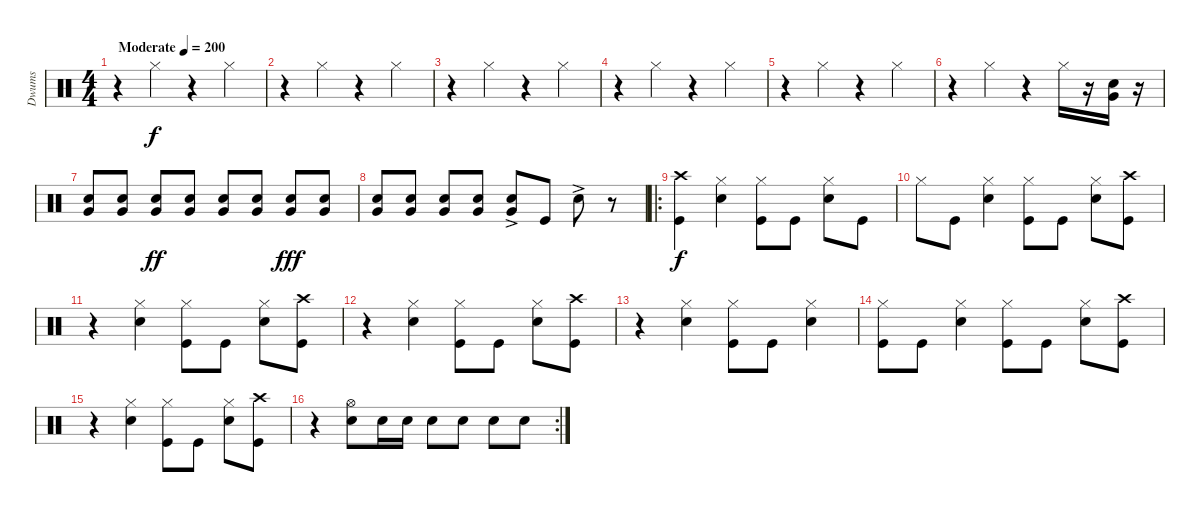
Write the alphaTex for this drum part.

\track ("Dwums" "Dwums") {instrument percussion}
\staff {score}
\articulation defaults
\ts (4 4)
\tempo (200 "Moderate")
\clef neutral
\ks c
r.4{dy f} "Hi-Hat (closed)".4 r.4 "Hi-Hat (closed)".4 |
r.4 "Hi-Hat (closed)".4 r.4 "Hi-Hat (closed)".4 |
r.4 "Hi-Hat (closed)".4 r.4 "Hi-Hat (closed)".4 |
r.4 "Hi-Hat (closed)".4 r.4 "Hi-Hat (closed)".4 |
r.4 "Hi-Hat (closed)".4 r.4 "Hi-Hat (closed)".4 |
r.4 "Hi-Hat (closed)".4 r.4 "Hi-Hat (closed)".16 r.16 ("Snare (hit) 2" "Very Low Tom (hit)").16 r.16 |
("Snare (hit) 2" "Very Low Tom (hit)").8 ("Snare (hit) 2" "Very Low Tom (hit)").8 ("Snare (hit) 2" "Very Low Tom (hit)").8{dy ff} ("Snare (hit) 2" "Very Low Tom (hit)").8 ("Snare (hit) 2" "Very Low Tom (hit)").8 ("Snare (hit) 2" "Very Low Tom (hit)").8 ("Snare (hit) 2" "Very Low Tom (hit)").8{dy fff} ("Snare (hit) 2" "Very Low Tom (hit)").8 |
("Snare (hit) 2" "Very Low Tom (hit)").8 ("Snare (hit) 2" "Very Low Tom (hit)").8 ("Snare (hit) 2" "Very Low Tom (hit)").8 ("Snare (hit) 2" "Very Low Tom (hit)").8 ("Snare (hit) 2"{ac} "Very Low Tom (hit)"{ac}).8 "Kick (hit)".8 "Snare (hit) 2"{ac}.8 r.8 |
\ro
("Kick (hit)" "Crash high (hit)").4{dy f} ("Snare (hit) 2" "Hi-Hat (closed)").4 ("Hi-Hat (closed)" "Kick (hit)").8 "Kick (hit)".8 ("Hi-Hat (closed)" "Snare (hit) 2").8 "Kick (hit)".8 |
"Hi-Hat (closed)".8 "Kick (hit)".8 ("Snare (hit) 2" "Hi-Hat (closed)").4 ("Hi-Hat (closed)" "Kick (hit)").8 "Kick (hit)".8 ("Hi-Hat (closed)" "Snare (hit) 2").8 ("Kick (hit)" "Crash high (hit)").8 |
r.4 ("Hi-Hat (closed)" "Snare (hit) 2").4 ("Hi-Hat (closed)" "Kick (hit)").8 "Kick (hit)".8 ("Snare (hit) 2" "Hi-Hat (closed)").8 ("Kick (hit)" "Crash high (hit)").8 |
r.4 ("Hi-Hat (closed)" "Snare (hit) 2").4 ("Hi-Hat (closed)" "Kick (hit)").8 "Kick (hit)".8 ("Snare (hit) 2" "Hi-Hat (closed)").8 ("Kick (hit)" "Crash high (hit)").8 |
r.4 ("Snare (hit) 2" "Hi-Hat (closed)").4 ("Hi-Hat (closed)" "Kick (hit)").8 "Kick (hit)".8 ("Snare (hit) 2" "Hi-Hat (closed)").4 |
("Hi-Hat (closed)" "Kick (hit)").8 "Kick (hit)".8 ("Snare (hit) 2" "Hi-Hat (closed)").4 ("Hi-Hat (closed)" "Kick (hit)").8 "Kick (hit)".8 ("Snare (hit) 2" "Hi-Hat (closed)").8 ("Kick (hit)" "Crash high (hit)").8 |
r.4 ("Hi-Hat (closed)" "Snare (hit) 2").4 ("Hi-Hat (closed)" "Kick (hit)").8 "Kick (hit)".8 ("Snare (hit) 2" "Hi-Hat (closed)").8 ("Kick (hit)" "Crash high (hit)").8 |
\rc 2
r.4 ("Snare (hit) 2" "Hi-Hat (open)").8 "Snare (hit) 2".16 "Snare (hit) 2".16 "Snare (hit) 2".8 "Snare (hit) 2".8 "Snare (hit) 2".8 "Snare (hit) 2".8
